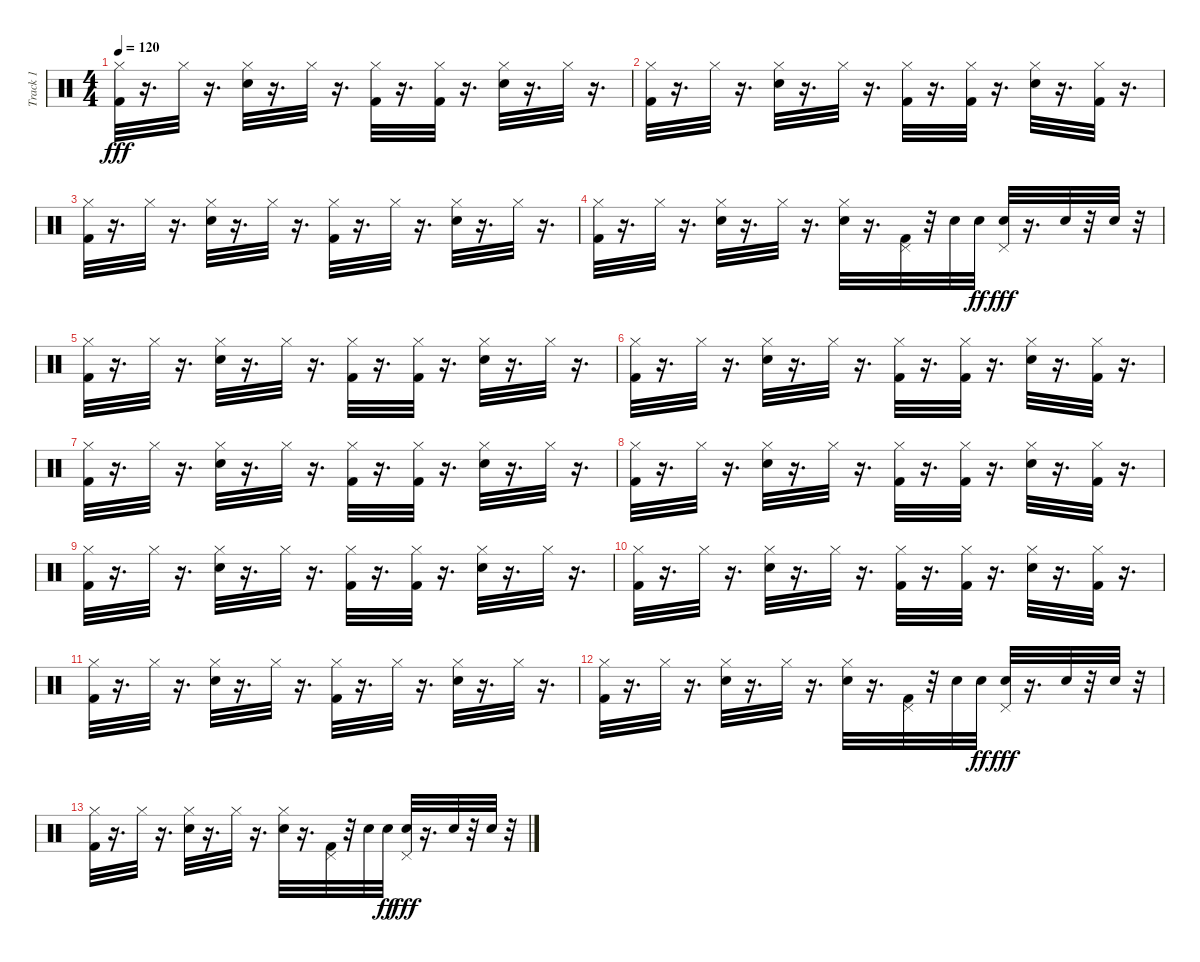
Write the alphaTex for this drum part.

\track ("Track 1" "Track 1") {instrument percussion}
\staff {score}
\articulation defaults
\ts (4 4)
\tempo 120
\clef neutral
\ks c
("Kick (hit) 2" "Hi-Hat (closed)").32{dy fff} r.16{d} "Hi-Hat (closed)".32 r.16{d} ("Hi-Hat (closed)" "Snare (hit) 2").32 r.16{d} "Hi-Hat (closed)".32 r.16{d} ("Kick (hit) 2" "Hi-Hat (closed)").32 r.16{d} ("Hi-Hat (closed)" "Kick (hit) 2").32 r.16{d} ("Hi-Hat (closed)" "Snare (hit) 2").32 r.16{d} "Hi-Hat (closed)".32 r.16{d} |
("Hi-Hat (closed)" "Kick (hit) 2").32 r.16{d} "Hi-Hat (closed)".32 r.16{d} ("Hi-Hat (closed)" "Snare (hit) 2").32 r.16{d} "Hi-Hat (closed)".32 r.16{d} ("Kick (hit) 2" "Hi-Hat (closed)").32 r.16{d} ("Hi-Hat (closed)" "Kick (hit) 2").32 r.16{d} ("Hi-Hat (closed)" "Snare (hit) 2").32 r.16{d} ("Hi-Hat (closed)" "Kick (hit) 2").32 r.16{d} |
("Kick (hit) 2" "Hi-Hat (closed)").32 r.16{d} "Hi-Hat (closed)".32 r.16{d} ("Hi-Hat (closed)" "Snare (hit) 2").32 r.16{d} "Hi-Hat (closed)".32 r.16{d} ("Kick (hit) 2" "Hi-Hat (closed)").32 r.16{d} "Hi-Hat (closed)".32 r.16{d} ("Snare (hit) 2" "Hi-Hat (closed)").32 r.16{d} "Hi-Hat (closed)".32 r.16{d} |
("Hi-Hat (closed)" "Kick (hit) 2").32 r.16{d} "Hi-Hat (closed)".32 r.16{d} ("Hi-Hat (closed)" "Snare (hit) 2").32 r.16{d} "Hi-Hat (closed)".32 r.16{d} ("Snare (hit) 2" "Hi-Hat (closed)").32 r.16{d} ("Kick (hit) 2" "Pedal Hi-Hat (hit)").32 r.32 "Snare (hit) 2".32 "Snare (hit) 2".32{dy ff} ("Pedal Hi-Hat (hit)" "Snare (hit) 2").32{dy fff} r.16{d} "Snare (hit) 2".32 r.32 "Snare (hit) 2".32 r.32 |
("Kick (hit) 2" "Hi-Hat (closed)").32 r.16{d} "Hi-Hat (closed)".32 r.16{d} ("Hi-Hat (closed)" "Snare (hit) 2").32 r.16{d} "Hi-Hat (closed)".32 r.16{d} ("Kick (hit) 2" "Hi-Hat (closed)").32 r.16{d} ("Hi-Hat (closed)" "Kick (hit) 2").32 r.16{d} ("Hi-Hat (closed)" "Snare (hit) 2").32 r.16{d} "Hi-Hat (closed)".32 r.16{d} |
("Hi-Hat (closed)" "Kick (hit) 2").32 r.16{d} "Hi-Hat (closed)".32 r.16{d} ("Hi-Hat (closed)" "Snare (hit) 2").32 r.16{d} "Hi-Hat (closed)".32 r.16{d} ("Kick (hit) 2" "Hi-Hat (closed)").32 r.16{d} ("Hi-Hat (closed)" "Kick (hit) 2").32 r.16{d} ("Hi-Hat (closed)" "Snare (hit) 2").32 r.16{d} ("Hi-Hat (closed)" "Kick (hit) 2").32 r.16{d} |
("Kick (hit) 2" "Hi-Hat (closed)").32 r.16{d} "Hi-Hat (closed)".32 r.16{d} ("Hi-Hat (closed)" "Snare (hit) 2").32 r.16{d} "Hi-Hat (closed)".32 r.16{d} ("Kick (hit) 2" "Hi-Hat (closed)").32 r.16{d} ("Hi-Hat (closed)" "Kick (hit) 2").32 r.16{d} ("Hi-Hat (closed)" "Snare (hit) 2").32 r.16{d} "Hi-Hat (closed)".32 r.16{d} |
("Hi-Hat (closed)" "Kick (hit) 2").32 r.16{d} "Hi-Hat (closed)".32 r.16{d} ("Hi-Hat (closed)" "Snare (hit) 2").32 r.16{d} "Hi-Hat (closed)".32 r.16{d} ("Kick (hit) 2" "Hi-Hat (closed)").32 r.16{d} ("Hi-Hat (closed)" "Kick (hit) 2").32 r.16{d} ("Hi-Hat (closed)" "Snare (hit) 2").32 r.16{d} ("Hi-Hat (closed)" "Kick (hit) 2").32 r.16{d} |
("Kick (hit) 2" "Hi-Hat (closed)").32 r.16{d} "Hi-Hat (closed)".32 r.16{d} ("Hi-Hat (closed)" "Snare (hit) 2").32 r.16{d} "Hi-Hat (closed)".32 r.16{d} ("Kick (hit) 2" "Hi-Hat (closed)").32 r.16{d} ("Hi-Hat (closed)" "Kick (hit) 2").32 r.16{d} ("Hi-Hat (closed)" "Snare (hit) 2").32 r.16{d} "Hi-Hat (closed)".32 r.16{d} |
("Hi-Hat (closed)" "Kick (hit) 2").32 r.16{d} "Hi-Hat (closed)".32 r.16{d} ("Hi-Hat (closed)" "Snare (hit) 2").32 r.16{d} "Hi-Hat (closed)".32 r.16{d} ("Kick (hit) 2" "Hi-Hat (closed)").32 r.16{d} ("Hi-Hat (closed)" "Kick (hit) 2").32 r.16{d} ("Hi-Hat (closed)" "Snare (hit) 2").32 r.16{d} ("Hi-Hat (closed)" "Kick (hit) 2").32 r.16{d} |
("Kick (hit) 2" "Hi-Hat (closed)").32 r.16{d} "Hi-Hat (closed)".32 r.16{d} ("Hi-Hat (closed)" "Snare (hit) 2").32 r.16{d} "Hi-Hat (closed)".32 r.16{d} ("Kick (hit) 2" "Hi-Hat (closed)").32 r.16{d} "Hi-Hat (closed)".32 r.16{d} ("Snare (hit) 2" "Hi-Hat (closed)").32 r.16{d} "Hi-Hat (closed)".32 r.16{d} |
("Hi-Hat (closed)" "Kick (hit) 2").32 r.16{d} "Hi-Hat (closed)".32 r.16{d} ("Hi-Hat (closed)" "Snare (hit) 2").32 r.16{d} "Hi-Hat (closed)".32 r.16{d} ("Snare (hit) 2" "Hi-Hat (closed)").32 r.16{d} ("Kick (hit) 2" "Pedal Hi-Hat (hit)").32 r.32 "Snare (hit) 2".32 "Snare (hit) 2".32{dy ff} ("Pedal Hi-Hat (hit)" "Snare (hit) 2").32{dy fff} r.16{d} "Snare (hit) 2".32 r.32 "Snare (hit) 2".32 r.32 |
("Hi-Hat (closed)" "Kick (hit) 2").32 r.16{d} "Hi-Hat (closed)".32 r.16{d} ("Hi-Hat (closed)" "Snare (hit) 2").32 r.16{d} "Hi-Hat (closed)".32 r.16{d} ("Snare (hit) 2" "Hi-Hat (closed)").32 r.16{d} ("Kick (hit) 2" "Pedal Hi-Hat (hit)").32 r.32 "Snare (hit) 2".32 "Snare (hit) 2".32{dy ff} ("Pedal Hi-Hat (hit)" "Snare (hit) 2").32{dy fff} r.16{d} "Snare (hit) 2".32 r.32 "Snare (hit) 2".32 r.32
